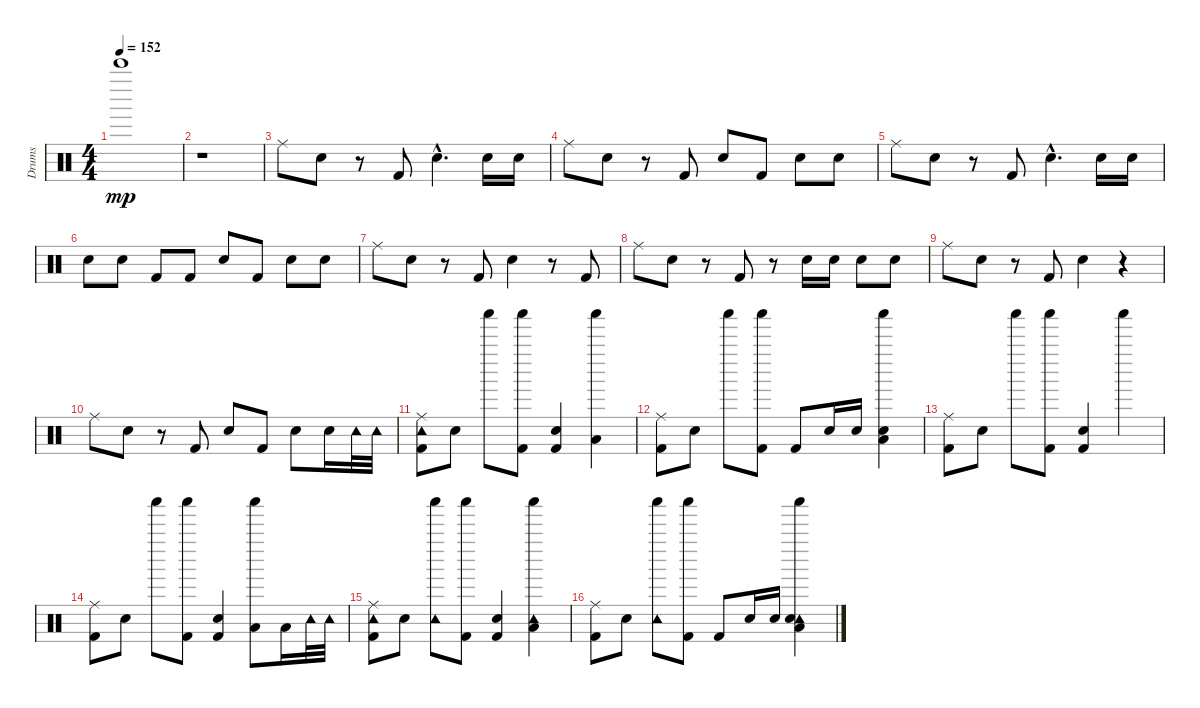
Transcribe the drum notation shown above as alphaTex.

\track ("Drums" "Drums") {instrument percussion}
\staff {score}
\articulation defaults
\ts (4 4)
\tempo 152
\clef neutral
\ks c "Bell Tree (hit)".1{dy mp}
|
r.1 |
"Ride (middle)".8 "Snare (hit) 2".8 r.8 "Kick (hit) 2".8 "Snare (hit) 2"{hac}.4{d} "Snare (hit) 2".16 "Snare (hit) 2".16 |
"Ride (middle)".8 "Snare (hit) 2".8 r.8 "Kick (hit) 2".8 "Snare (hit) 2".8 "Kick (hit) 2".8 "Snare (hit) 2".8 "Snare (hit) 2".8 |
"Ride (middle)".8 "Snare (hit) 2".8 r.8 "Kick (hit) 2".8 "Snare (hit) 2"{hac}.4{d} "Snare (hit) 2".16 "Snare (hit) 2".16 |
"Snare (hit) 2".8 "Snare (hit) 2".8 "Kick (hit) 2".8 "Kick (hit) 2".8 "Snare (hit) 2".8 "Kick (hit) 2".8 "Snare (hit) 2".8 "Snare (hit) 2".8 |
"Ride (middle)".8 "Snare (hit) 2".8 r.8 "Kick (hit) 2".8 "Snare (hit) 2".4 r.8 "Kick (hit) 2".8 |
"Ride (middle)".8 "Snare (hit) 2".8 r.8 "Kick (hit) 2".8 r.8 "Snare (hit) 2".16 "Snare (hit) 2".16 "Snare (hit) 2".8 "Snare (hit) 2".8 |
"Ride (middle)".8 "Snare (hit) 2".8 r.8 "Kick (hit) 2".8 "Snare (hit) 2".4 r.4 |
"Ride (middle)".8 "Snare (hit) 2".8 r.8 "Kick (hit) 2".8 "Snare (hit) 2".8 "Kick (hit) 2".8 "Snare (hit) 2".8 "Snare (hit) 2".16 "Tambourine (hit)".32 "Tambourine (hit)".32 |
("Tambourine (hit)" "Ride (middle)" "Kick (hit) 2").8 "Snare (hit) 2".8 "Shaker (hit)".8 ("Shaker (hit)" "Kick (hit) 2").8 ("Kick (hit) 2" "Snare (hit) 2").4 ("Shaker (hit)" "Low Tom (hit)").4 |
("Ride (middle)" "Kick (hit) 2").8 "Snare (hit) 2".8 "Shaker (hit)".8 ("Shaker (hit)" "Kick (hit) 2").8 "Kick (hit) 2".8 "Snare (hit) 2".16 "Snare (hit) 2".16 ("Low Tom (hit)" "Shaker (hit)" "Snare (hit) 2").4 |
("Ride (middle)" "Kick (hit) 2").8 "Snare (hit) 2".8 "Shaker (hit)".8 ("Shaker (hit)" "Kick (hit) 2").8 ("Kick (hit) 2" "Snare (hit) 2").4 "Shaker (hit)".4 |
("Ride (middle)" "Kick (hit) 2").8 "Snare (hit) 2".8 "Shaker (hit)".8 ("Shaker (hit)" "Kick (hit) 2").8 ("Kick (hit) 2" "Snare (hit) 2").4 ("Shaker (hit)" "Low Tom (hit)").8 "Low Tom (hit)".16 "Tambourine (hit)".32 "Tambourine (hit)".32 |
("Tambourine (hit)" "Ride (middle)" "Kick (hit) 2").8 "Snare (hit) 2".8 ("Shaker (hit)" "Tambourine (hit)").8 ("Shaker (hit)" "Kick (hit) 2").8 ("Kick (hit) 2" "Snare (hit) 2").4 ("Tambourine (hit)" "Shaker (hit)" "Low Tom (hit)").4 |
("Ride (middle)" "Kick (hit) 2").8 "Snare (hit) 2".8 ("Shaker (hit)" "Tambourine (hit)").8 ("Shaker (hit)" "Kick (hit) 2").8 "Kick (hit) 2".8 "Snare (hit) 2".16 "Snare (hit) 2".16 ("Low Tom (hit)" "Tambourine (hit)" "Shaker (hit)" "Snare (hit) 2").4
